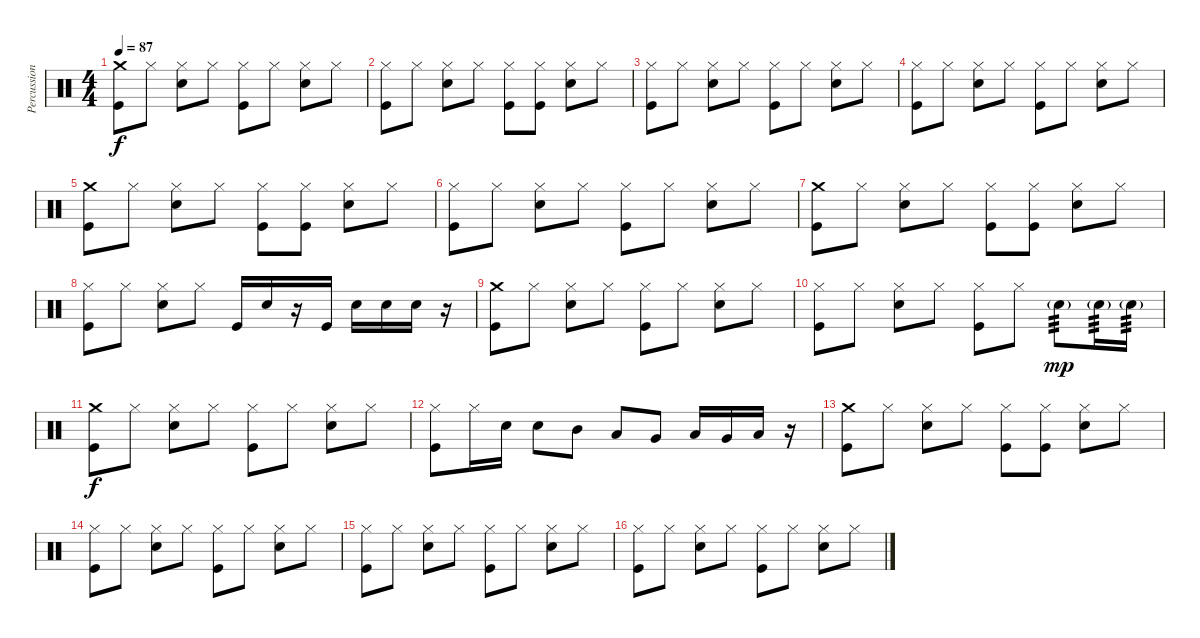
\track ("Percussion" "Percussion") {instrument percussion}
\staff {score}
\articulation defaults
\ts (4 4)
\tempo 87
\clef neutral
\ks c
("Crash medium (hit)" "Kick (hit)").8{dy f} "Hi-Hat (closed)".8 ("Hi-Hat (closed)" "Electric Snare (hit)").8 "Hi-Hat (closed)".8 ("Hi-Hat (closed)" "Kick (hit)").8 "Hi-Hat (closed)".8 ("Hi-Hat (closed)" "Electric Snare (hit)").8 "Hi-Hat (closed)".8 |
("Hi-Hat (closed)" "Kick (hit)").8 "Hi-Hat (closed)".8 ("Hi-Hat (closed)" "Electric Snare (hit)").8 "Hi-Hat (closed)".8 ("Hi-Hat (closed)" "Kick (hit)").8 ("Hi-Hat (closed)" "Kick (hit)").8 ("Hi-Hat (closed)" "Electric Snare (hit)").8 "Hi-Hat (closed)".8 |
("Hi-Hat (closed)" "Kick (hit)").8 "Hi-Hat (closed)".8 ("Hi-Hat (closed)" "Electric Snare (hit)").8 "Hi-Hat (closed)".8 ("Hi-Hat (closed)" "Kick (hit)").8 "Hi-Hat (closed)".8 ("Hi-Hat (closed)" "Electric Snare (hit)").8 "Hi-Hat (closed)".8 |
("Hi-Hat (closed)" "Kick (hit)").8 "Hi-Hat (closed)".8 ("Hi-Hat (closed)" "Electric Snare (hit)").8 "Hi-Hat (closed)".8 ("Hi-Hat (closed)" "Kick (hit)").8 "Hi-Hat (closed)".8 ("Hi-Hat (closed)" "Electric Snare (hit)").8 "Hi-Hat (closed)".8 |
("Crash medium (hit)" "Kick (hit)").8 "Hi-Hat (closed)".8 ("Hi-Hat (closed)" "Electric Snare (hit)").8 "Hi-Hat (closed)".8 ("Hi-Hat (closed)" "Kick (hit)").8 ("Hi-Hat (closed)" "Kick (hit)").8 ("Hi-Hat (closed)" "Electric Snare (hit)").8 "Hi-Hat (closed)".8 |
("Hi-Hat (closed)" "Kick (hit)").8 "Hi-Hat (closed)".8 ("Hi-Hat (closed)" "Electric Snare (hit)").8 "Hi-Hat (closed)".8 ("Hi-Hat (closed)" "Kick (hit)").8 "Hi-Hat (closed)".8 ("Hi-Hat (closed)" "Electric Snare (hit)").8 "Hi-Hat (closed)".8 |
("Crash medium (hit)" "Kick (hit)").8 "Hi-Hat (closed)".8 ("Hi-Hat (closed)" "Electric Snare (hit)").8 "Hi-Hat (closed)".8 ("Hi-Hat (closed)" "Kick (hit)").8 ("Hi-Hat (closed)" "Kick (hit)").8 ("Hi-Hat (closed)" "Electric Snare (hit)").8 "Hi-Hat (closed)".8 |
("Hi-Hat (closed)" "Kick (hit)").8 "Hi-Hat (closed)".8 ("Hi-Hat (closed)" "Electric Snare (hit)").8 "Hi-Hat (closed)".8 "Kick (hit)".16 "Electric Snare (hit)".16 r.16 "Kick (hit)".16 "Electric Snare (hit)".16 "Electric Snare (hit)".16 "Electric Snare (hit)".16 r.16 |
("Crash medium (hit)" "Kick (hit)").8 "Hi-Hat (closed)".8 ("Hi-Hat (closed)" "Electric Snare (hit)").8 "Hi-Hat (closed)".8 ("Hi-Hat (closed)" "Kick (hit)").8 "Hi-Hat (closed)".8 ("Hi-Hat (closed)" "Electric Snare (hit)").8 "Hi-Hat (closed)".8 |
("Hi-Hat (closed)" "Kick (hit)").8 "Hi-Hat (closed)".8 ("Hi-Hat (closed)" "Electric Snare (hit)").8 "Hi-Hat (closed)".8 ("Hi-Hat (closed)" "Kick (hit)").8 "Hi-Hat (closed)".8 "Electric Snare (hit)"{g}.8{tp 3 dy mp} "Electric Snare (hit)"{g}.16{tp 3} "Electric Snare (hit)"{g}.16{tp 3} |
("Crash medium (hit)" "Kick (hit)").8{dy f} "Hi-Hat (closed)".8 ("Hi-Hat (closed)" "Electric Snare (hit)").8 "Hi-Hat (closed)".8 ("Hi-Hat (closed)" "Kick (hit)").8 "Hi-Hat (closed)".8 ("Hi-Hat (closed)" "Electric Snare (hit)").8 "Hi-Hat (closed)".8 |
("Hi-Hat (closed)" "Kick (hit)").8 "Hi-Hat (closed)".16 "Electric Snare (hit)".16 "Electric Snare (hit)".8 "Mid Tom (hit)".8 "Low Tom (hit)".8 "Very Low Tom (hit)".8 "Low Tom (hit)".16 "Very Low Tom (hit)".16 "Low Floor Tom (hit)".16 r.16 |
("Crash medium (hit)" "Kick (hit)").8 "Hi-Hat (closed)".8 ("Hi-Hat (closed)" "Electric Snare (hit)").8 "Hi-Hat (closed)".8 ("Hi-Hat (closed)" "Kick (hit)").8 ("Hi-Hat (closed)" "Kick (hit)").8 ("Hi-Hat (closed)" "Electric Snare (hit)").8 "Hi-Hat (closed)".8 |
("Hi-Hat (closed)" "Kick (hit)").8 "Hi-Hat (closed)".8 ("Hi-Hat (closed)" "Electric Snare (hit)").8 "Hi-Hat (closed)".8 ("Hi-Hat (closed)" "Kick (hit)").8 "Hi-Hat (closed)".8 ("Hi-Hat (closed)" "Electric Snare (hit)").8 "Hi-Hat (closed)".8 |
("Hi-Hat (closed)" "Kick (hit)").8 "Hi-Hat (closed)".8 ("Hi-Hat (closed)" "Electric Snare (hit)").8 "Hi-Hat (closed)".8 ("Hi-Hat (closed)" "Kick (hit)").8 "Hi-Hat (closed)".8 ("Hi-Hat (closed)" "Electric Snare (hit)").8 "Hi-Hat (closed)".8 |
("Hi-Hat (closed)" "Kick (hit)").8 "Hi-Hat (closed)".8 ("Hi-Hat (closed)" "Electric Snare (hit)").8 "Hi-Hat (closed)".8 ("Hi-Hat (closed)" "Kick (hit)").8 "Hi-Hat (closed)".8 ("Hi-Hat (closed)" "Electric Snare (hit)").8 "Hi-Hat (closed)".8
